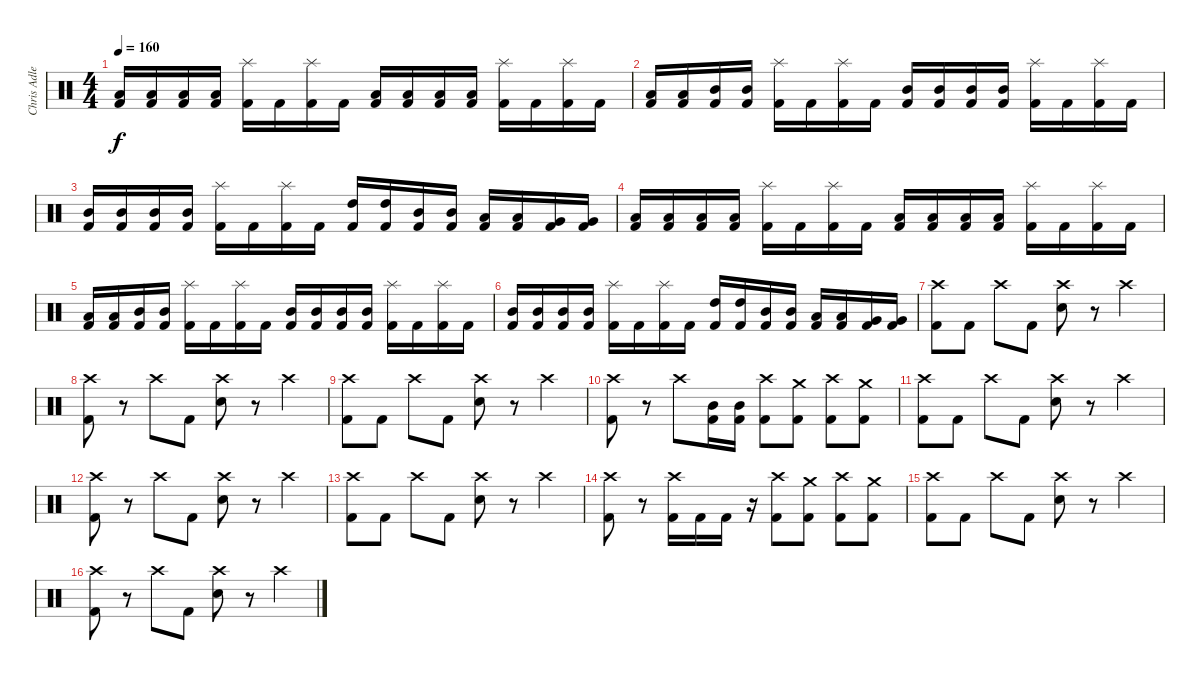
\track ("Chris Adler" "Chris Adle") {instrument percussion}
\staff {score}
\articulation defaults
\ts (4 4)
\tempo 160
\clef neutral
\ks c
("Low Tom (hit)" "Kick (hit) 2").16{dy f} ("Low Tom (hit)" "Kick (hit) 2").16 ("Low Tom (hit)" "Kick (hit) 2").16 ("Low Tom (hit)" "Kick (hit) 2").16 ("Splash (hit)" "Kick (hit) 2").16 "Kick (hit) 2".16 ("Splash (hit)" "Kick (hit) 2").16 "Kick (hit) 2".16 ("Low Tom (hit)" "Kick (hit) 2").16 ("Low Tom (hit)" "Kick (hit) 2").16 ("Low Tom (hit)" "Kick (hit) 2").16 ("Low Tom (hit)" "Kick (hit) 2").16 ("Splash (hit)" "Kick (hit) 2").16 "Kick (hit) 2".16 ("Splash (hit)" "Kick (hit) 2").16 "Kick (hit) 2".16 |
("Low Tom (hit)" "Kick (hit) 2").16 ("Low Tom (hit)" "Kick (hit) 2").16 ("Mid Tom (hit)" "Kick (hit) 2").16 ("Mid Tom (hit)" "Kick (hit) 2").16 ("Splash (hit)" "Kick (hit) 2").16 "Kick (hit) 2".16 ("Splash (hit)" "Kick (hit) 2").16 "Kick (hit) 2".16 ("Mid Tom (hit)" "Kick (hit) 2").16 ("Mid Tom (hit)" "Kick (hit) 2").16 ("Mid Tom (hit)" "Kick (hit) 2").16 ("Mid Tom (hit)" "Kick (hit) 2").16 ("Splash (hit)" "Kick (hit) 2").16 "Kick (hit) 2".16 ("Splash (hit)" "Kick (hit) 2").16 "Kick (hit) 2".16 |
("Mid Tom (hit)" "Kick (hit) 2").16 ("Mid Tom (hit)" "Kick (hit) 2").16 ("Mid Tom (hit)" "Kick (hit) 2").16 ("Mid Tom (hit)" "Kick (hit) 2").16 ("Splash (hit)" "Kick (hit) 2").16 "Kick (hit) 2".16 ("Splash (hit)" "Kick (hit) 2").16 "Kick (hit) 2".16 ("High Tom (hit)" "Kick (hit) 2").16 ("High Tom (hit)" "Kick (hit) 2").16 ("Mid Tom (hit)" "Kick (hit) 2").16 ("Mid Tom (hit)" "Kick (hit) 2").16 ("Low Tom (hit)" "Kick (hit) 2").16 ("Low Tom (hit)" "Kick (hit) 2").16 ("Very Low Tom (hit)" "Kick (hit) 2").16 ("Very Low Tom (hit)" "Kick (hit) 2").16 |
("Low Tom (hit)" "Kick (hit) 2").16 ("Low Tom (hit)" "Kick (hit) 2").16 ("Low Tom (hit)" "Kick (hit) 2").16 ("Low Tom (hit)" "Kick (hit) 2").16 ("Splash (hit)" "Kick (hit) 2").16 "Kick (hit) 2".16 ("Splash (hit)" "Kick (hit) 2").16 "Kick (hit) 2".16 ("Low Tom (hit)" "Kick (hit) 2").16 ("Low Tom (hit)" "Kick (hit) 2").16 ("Low Tom (hit)" "Kick (hit) 2").16 ("Low Tom (hit)" "Kick (hit) 2").16 ("Splash (hit)" "Kick (hit) 2").16 "Kick (hit) 2".16 ("Splash (hit)" "Kick (hit) 2").16 "Kick (hit) 2".16 |
("Low Tom (hit)" "Kick (hit) 2").16 ("Low Tom (hit)" "Kick (hit) 2").16 ("Mid Tom (hit)" "Kick (hit) 2").16 ("Mid Tom (hit)" "Kick (hit) 2").16 ("Splash (hit)" "Kick (hit) 2").16 "Kick (hit) 2".16 ("Splash (hit)" "Kick (hit) 2").16 "Kick (hit) 2".16 ("Mid Tom (hit)" "Kick (hit) 2").16 ("Mid Tom (hit)" "Kick (hit) 2").16 ("Mid Tom (hit)" "Kick (hit) 2").16 ("Mid Tom (hit)" "Kick (hit) 2").16 ("Splash (hit)" "Kick (hit) 2").16 "Kick (hit) 2".16 ("Splash (hit)" "Kick (hit) 2").16 "Kick (hit) 2".16 |
("Mid Tom (hit)" "Kick (hit) 2").16 ("Mid Tom (hit)" "Kick (hit) 2").16 ("Mid Tom (hit)" "Kick (hit) 2").16 ("Mid Tom (hit)" "Kick (hit) 2").16 ("Splash (hit)" "Kick (hit) 2").16 "Kick (hit) 2".16 ("Splash (hit)" "Kick (hit) 2").16 "Kick (hit) 2".16 ("High Tom (hit)" "Kick (hit) 2").16 ("High Tom (hit)" "Kick (hit) 2").16 ("Mid Tom (hit)" "Kick (hit) 2").16 ("Mid Tom (hit)" "Kick (hit) 2").16 ("Low Tom (hit)" "Kick (hit) 2").16 ("Low Tom (hit)" "Kick (hit) 2").16 ("Very Low Tom (hit)" "Kick (hit) 2").16 ("Very Low Tom (hit)" "Kick (hit) 2").16 |
("Crash high (hit)" "Kick (hit) 2").8 "Kick (hit) 2".8 "Crash high (hit)".8 "Kick (hit) 2".8 ("Crash high (hit)" "Electric Snare (hit)").8 r.8 "Crash high (hit)".4 |
("Crash high (hit)" "Kick (hit) 2").8 r.8 "Crash high (hit)".8 "Kick (hit) 2".8 ("Crash high (hit)" "Electric Snare (hit)").8 r.8 "Crash high (hit)".4 |
("Crash high (hit)" "Kick (hit) 2").8 "Kick (hit) 2".8 "Crash high (hit)".8 "Kick (hit) 2".8 ("Crash high (hit)" "Electric Snare (hit)").8 r.8 "Crash high (hit)".4 |
("Crash high (hit)" "Kick (hit) 2").8 r.8 "Crash high (hit)".8 ("Mid Tom (hit)" "Kick (hit) 2").16 ("Mid Tom (hit)" "Kick (hit) 2").16 ("Crash high (hit)" "Kick (hit) 2").8 ("Crash medium (hit)" "Kick (hit) 2").8 ("Crash high (hit)" "Kick (hit) 2").8 ("Crash medium (hit)" "Kick (hit) 2").8 |
("Crash high (hit)" "Kick (hit) 2").8 "Kick (hit) 2".8 "Crash high (hit)".8 "Kick (hit) 2".8 ("Crash high (hit)" "Electric Snare (hit)").8 r.8 "Crash high (hit)".4 |
("Crash high (hit)" "Kick (hit) 2").8 r.8 "Crash high (hit)".8 "Kick (hit) 2".8 ("Crash high (hit)" "Electric Snare (hit)").8 r.8 "Crash high (hit)".4 |
("Crash high (hit)" "Kick (hit) 2").8 "Kick (hit) 2".8 "Crash high (hit)".8 "Kick (hit) 2".8 ("Crash high (hit)" "Electric Snare (hit)").8 r.8 "Crash high (hit)".4 |
("Crash high (hit)" "Kick (hit) 2").8 r.8 ("Crash high (hit)" "Kick (hit) 2").16 "Kick (hit) 2".16 "Kick (hit) 2".16 r.16 ("Crash high (hit)" "Kick (hit) 2").8 ("Crash medium (hit)" "Kick (hit) 2").8 ("Crash high (hit)" "Kick (hit) 2").8 ("Crash medium (hit)" "Kick (hit) 2").8 |
("Crash high (hit)" "Kick (hit) 2").8 "Kick (hit) 2".8 "Crash high (hit)".8 "Kick (hit) 2".8 ("Crash high (hit)" "Electric Snare (hit)").8 r.8 "Crash high (hit)".4 |
("Crash high (hit)" "Kick (hit) 2").8 r.8 "Crash high (hit)".8 "Kick (hit) 2".8 ("Crash high (hit)" "Electric Snare (hit)").8 r.8 "Crash high (hit)".4
